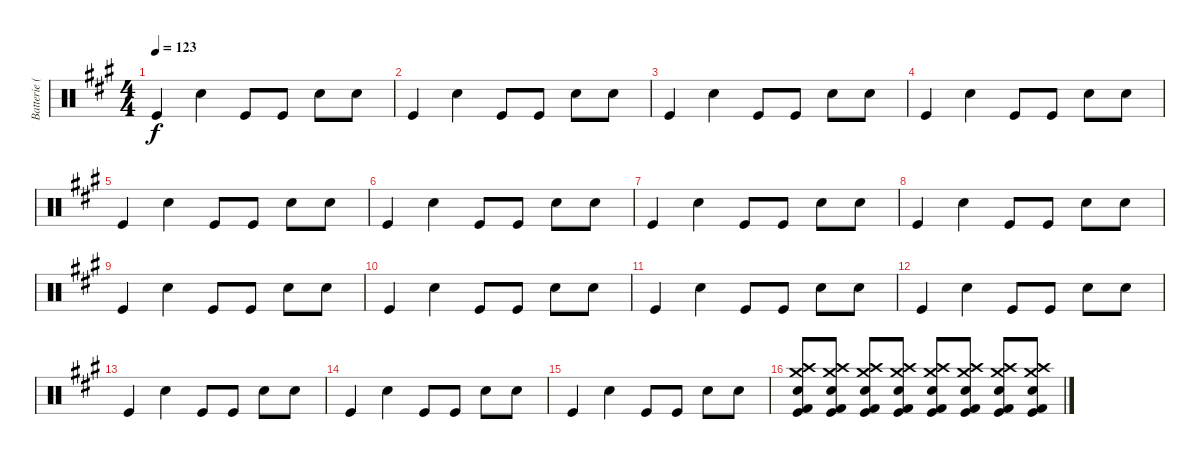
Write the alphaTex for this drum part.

\track ("Batterie (Dominic Howard)" "Batterie (") {instrument percussion}
\staff {score}
\articulation defaults
\ts (4 4)
\tempo 123
\clef neutral
\ks a "Kick (hit)".4{dy f} "Electric Snare (hit)".4 "Kick (hit)".8 "Kick (hit)".8 "Electric Snare (hit)".8 "Electric Snare (hit)".8
|
"Kick (hit)".4 "Electric Snare (hit)".4 "Kick (hit)".8 "Kick (hit)".8 "Electric Snare (hit)".8 "Electric Snare (hit)".8 |
"Kick (hit)".4 "Electric Snare (hit)".4 "Kick (hit)".8 "Kick (hit)".8 "Electric Snare (hit)".8 "Electric Snare (hit)".8 |
"Kick (hit)".4 "Electric Snare (hit)".4 "Kick (hit)".8 "Kick (hit)".8 "Electric Snare (hit)".8 "Electric Snare (hit)".8 |
"Kick (hit)".4 "Electric Snare (hit)".4 "Kick (hit)".8 "Kick (hit)".8 "Electric Snare (hit)".8 "Electric Snare (hit)".8 |
"Kick (hit)".4 "Electric Snare (hit)".4 "Kick (hit)".8 "Kick (hit)".8 "Electric Snare (hit)".8 "Electric Snare (hit)".8 |
"Kick (hit)".4 "Electric Snare (hit)".4 "Kick (hit)".8 "Kick (hit)".8 "Electric Snare (hit)".8 "Electric Snare (hit)".8 |
"Kick (hit)".4 "Electric Snare (hit)".4 "Kick (hit)".8 "Kick (hit)".8 "Electric Snare (hit)".8 "Electric Snare (hit)".8 |
"Kick (hit)".4 "Electric Snare (hit)".4 "Kick (hit)".8 "Kick (hit)".8 "Electric Snare (hit)".8 "Electric Snare (hit)".8 |
"Kick (hit)".4 "Electric Snare (hit)".4 "Kick (hit)".8 "Kick (hit)".8 "Electric Snare (hit)".8 "Electric Snare (hit)".8 |
"Kick (hit)".4 "Electric Snare (hit)".4 "Kick (hit)".8 "Kick (hit)".8 "Electric Snare (hit)".8 "Electric Snare (hit)".8 |
"Kick (hit)".4 "Electric Snare (hit)".4 "Kick (hit)".8 "Kick (hit)".8 "Electric Snare (hit)".8 "Electric Snare (hit)".8 |
"Kick (hit)".4 "Electric Snare (hit)".4 "Kick (hit)".8 "Kick (hit)".8 "Electric Snare (hit)".8 "Electric Snare (hit)".8 |
"Kick (hit)".4 "Electric Snare (hit)".4 "Kick (hit)".8 "Kick (hit)".8 "Electric Snare (hit)".8 "Electric Snare (hit)".8 |
"Kick (hit)".4 "Electric Snare (hit)".4 "Kick (hit)".8 "Kick (hit)".8 "Electric Snare (hit)".8 "Electric Snare (hit)".8 |
("Snare (hit) 2" "Crash medium (hit)" "Crash high (hit)" "Kick (hit) 2" "Kick (hit)").8 ("Snare (hit) 2" "Crash medium (hit)" "Crash high (hit)" "Kick (hit) 2" "Kick (hit)").8 ("Snare (hit) 2" "Crash medium (hit)" "Crash high (hit)" "Kick (hit) 2" "Kick (hit)").8 ("Snare (hit) 2" "Crash medium (hit)" "Crash high (hit)" "Kick (hit) 2" "Kick (hit)").8 ("Snare (hit) 2" "Crash medium (hit)" "Crash high (hit)" "Kick (hit) 2" "Kick (hit)").8 ("Snare (hit) 2" "Crash medium (hit)" "Crash high (hit)" "Kick (hit) 2" "Kick (hit)").8 ("Snare (hit) 2" "Crash medium (hit)" "Crash high (hit)" "Kick (hit) 2" "Kick (hit)").8 ("Snare (hit) 2" "Crash medium (hit)" "Crash high (hit)" "Kick (hit) 2" "Kick (hit)").8
